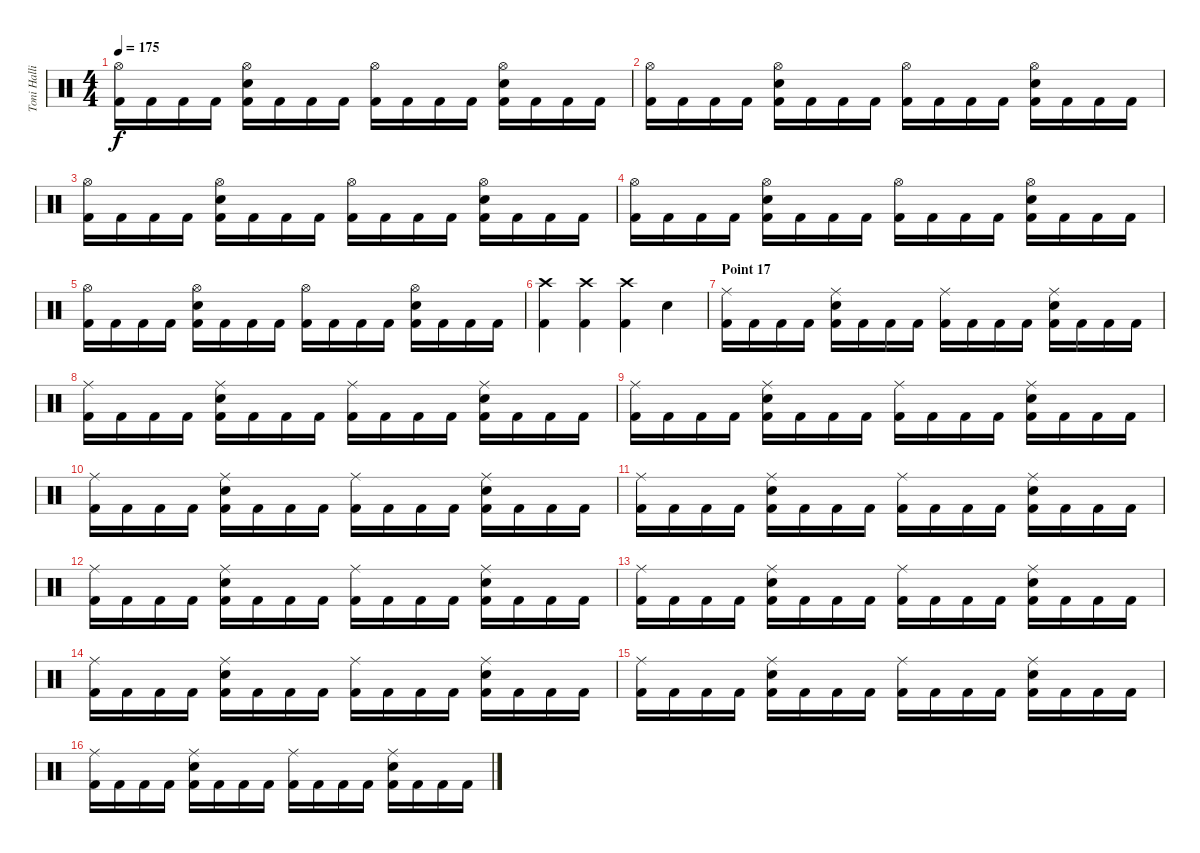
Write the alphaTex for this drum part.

\track ("Toni Hallio" "Toni Halli") {instrument percussion}
\staff {score}
\articulation defaults
\ts (4 4)
\tempo 175
\clef neutral
\ks c
("Hi-Hat (open)" "Kick (hit) 2").16{dy f} "Kick (hit) 2".16 "Kick (hit) 2".16 "Kick (hit) 2".16 ("Hi-Hat (open)" "Snare (hit) 2" "Kick (hit) 2").16 "Kick (hit) 2".16 "Kick (hit) 2".16 "Kick (hit) 2".16 ("Hi-Hat (open)" "Kick (hit) 2").16 "Kick (hit) 2".16 "Kick (hit) 2".16 "Kick (hit) 2".16 ("Hi-Hat (open)" "Snare (hit) 2" "Kick (hit) 2").16 "Kick (hit) 2".16 "Kick (hit) 2".16 "Kick (hit) 2".16 |
("Hi-Hat (open)" "Kick (hit) 2").16 "Kick (hit) 2".16 "Kick (hit) 2".16 "Kick (hit) 2".16 ("Hi-Hat (open)" "Snare (hit) 2" "Kick (hit) 2").16 "Kick (hit) 2".16 "Kick (hit) 2".16 "Kick (hit) 2".16 ("Hi-Hat (open)" "Kick (hit) 2").16 "Kick (hit) 2".16 "Kick (hit) 2".16 "Kick (hit) 2".16 ("Hi-Hat (open)" "Snare (hit) 2" "Kick (hit) 2").16 "Kick (hit) 2".16 "Kick (hit) 2".16 "Kick (hit) 2".16 |
("Hi-Hat (open)" "Kick (hit) 2").16 "Kick (hit) 2".16 "Kick (hit) 2".16 "Kick (hit) 2".16 ("Hi-Hat (open)" "Snare (hit) 2" "Kick (hit) 2").16 "Kick (hit) 2".16 "Kick (hit) 2".16 "Kick (hit) 2".16 ("Hi-Hat (open)" "Kick (hit) 2").16 "Kick (hit) 2".16 "Kick (hit) 2".16 "Kick (hit) 2".16 ("Hi-Hat (open)" "Snare (hit) 2" "Kick (hit) 2").16 "Kick (hit) 2".16 "Kick (hit) 2".16 "Kick (hit) 2".16 |
("Hi-Hat (open)" "Kick (hit) 2").16 "Kick (hit) 2".16 "Kick (hit) 2".16 "Kick (hit) 2".16 ("Hi-Hat (open)" "Snare (hit) 2" "Kick (hit) 2").16 "Kick (hit) 2".16 "Kick (hit) 2".16 "Kick (hit) 2".16 ("Hi-Hat (open)" "Kick (hit) 2").16 "Kick (hit) 2".16 "Kick (hit) 2".16 "Kick (hit) 2".16 ("Hi-Hat (open)" "Snare (hit) 2" "Kick (hit) 2").16 "Kick (hit) 2".16 "Kick (hit) 2".16 "Kick (hit) 2".16 |
("Hi-Hat (open)" "Kick (hit) 2").16 "Kick (hit) 2".16 "Kick (hit) 2".16 "Kick (hit) 2".16 ("Hi-Hat (open)" "Snare (hit) 2" "Kick (hit) 2").16 "Kick (hit) 2".16 "Kick (hit) 2".16 "Kick (hit) 2".16 ("Hi-Hat (open)" "Kick (hit) 2").16 "Kick (hit) 2".16 "Kick (hit) 2".16 "Kick (hit) 2".16 ("Hi-Hat (open)" "Snare (hit) 2" "Kick (hit) 2").16 "Kick (hit) 2".16 "Kick (hit) 2".16 "Kick (hit) 2".16 |
("Crash high (hit)" "Kick (hit) 2").4 ("Crash high (hit)" "Kick (hit) 2").4 ("Crash high (hit)" "Kick (hit) 2").4 "Snare (hit) 2".4 |
\section ("" "Point 17")
("Ride (middle)" "Kick (hit) 2").16 "Kick (hit) 2".16 "Kick (hit) 2".16 "Kick (hit) 2".16 ("Ride (middle)" "Snare (hit) 2" "Kick (hit) 2").16 "Kick (hit) 2".16 "Kick (hit) 2".16 "Kick (hit) 2".16 ("Ride (middle)" "Kick (hit) 2").16 "Kick (hit) 2".16 "Kick (hit) 2".16 "Kick (hit) 2".16 ("Ride (middle)" "Snare (hit) 2" "Kick (hit) 2").16 "Kick (hit) 2".16 "Kick (hit) 2".16 "Kick (hit) 2".16 |
("Ride (middle)" "Kick (hit) 2").16 "Kick (hit) 2".16 "Kick (hit) 2".16 "Kick (hit) 2".16 ("Ride (middle)" "Snare (hit) 2" "Kick (hit) 2").16 "Kick (hit) 2".16 "Kick (hit) 2".16 "Kick (hit) 2".16 ("Ride (middle)" "Kick (hit) 2").16 "Kick (hit) 2".16 "Kick (hit) 2".16 "Kick (hit) 2".16 ("Ride (middle)" "Snare (hit) 2" "Kick (hit) 2").16 "Kick (hit) 2".16 "Kick (hit) 2".16 "Kick (hit) 2".16 |
("Ride (middle)" "Kick (hit) 2").16 "Kick (hit) 2".16 "Kick (hit) 2".16 "Kick (hit) 2".16 ("Ride (middle)" "Snare (hit) 2" "Kick (hit) 2").16 "Kick (hit) 2".16 "Kick (hit) 2".16 "Kick (hit) 2".16 ("Ride (middle)" "Kick (hit) 2").16 "Kick (hit) 2".16 "Kick (hit) 2".16 "Kick (hit) 2".16 ("Ride (middle)" "Snare (hit) 2" "Kick (hit) 2").16 "Kick (hit) 2".16 "Kick (hit) 2".16 "Kick (hit) 2".16 |
("Ride (middle)" "Kick (hit) 2").16 "Kick (hit) 2".16 "Kick (hit) 2".16 "Kick (hit) 2".16 ("Ride (middle)" "Snare (hit) 2" "Kick (hit) 2").16 "Kick (hit) 2".16 "Kick (hit) 2".16 "Kick (hit) 2".16 ("Ride (middle)" "Kick (hit) 2").16 "Kick (hit) 2".16 "Kick (hit) 2".16 "Kick (hit) 2".16 ("Ride (middle)" "Snare (hit) 2" "Kick (hit) 2").16 "Kick (hit) 2".16 "Kick (hit) 2".16 "Kick (hit) 2".16 |
("Ride (middle)" "Kick (hit) 2").16 "Kick (hit) 2".16 "Kick (hit) 2".16 "Kick (hit) 2".16 ("Ride (middle)" "Snare (hit) 2" "Kick (hit) 2").16 "Kick (hit) 2".16 "Kick (hit) 2".16 "Kick (hit) 2".16 ("Ride (middle)" "Kick (hit) 2").16 "Kick (hit) 2".16 "Kick (hit) 2".16 "Kick (hit) 2".16 ("Ride (middle)" "Snare (hit) 2" "Kick (hit) 2").16 "Kick (hit) 2".16 "Kick (hit) 2".16 "Kick (hit) 2".16 |
("Ride (middle)" "Kick (hit) 2").16 "Kick (hit) 2".16 "Kick (hit) 2".16 "Kick (hit) 2".16 ("Ride (middle)" "Snare (hit) 2" "Kick (hit) 2").16 "Kick (hit) 2".16 "Kick (hit) 2".16 "Kick (hit) 2".16 ("Ride (middle)" "Kick (hit) 2").16 "Kick (hit) 2".16 "Kick (hit) 2".16 "Kick (hit) 2".16 ("Ride (middle)" "Snare (hit) 2" "Kick (hit) 2").16 "Kick (hit) 2".16 "Kick (hit) 2".16 "Kick (hit) 2".16 |
("Ride (middle)" "Kick (hit) 2").16 "Kick (hit) 2".16 "Kick (hit) 2".16 "Kick (hit) 2".16 ("Ride (middle)" "Snare (hit) 2" "Kick (hit) 2").16 "Kick (hit) 2".16 "Kick (hit) 2".16 "Kick (hit) 2".16 ("Ride (middle)" "Kick (hit) 2").16 "Kick (hit) 2".16 "Kick (hit) 2".16 "Kick (hit) 2".16 ("Ride (middle)" "Snare (hit) 2" "Kick (hit) 2").16 "Kick (hit) 2".16 "Kick (hit) 2".16 "Kick (hit) 2".16 |
("Ride (middle)" "Kick (hit) 2").16 "Kick (hit) 2".16 "Kick (hit) 2".16 "Kick (hit) 2".16 ("Ride (middle)" "Snare (hit) 2" "Kick (hit) 2").16 "Kick (hit) 2".16 "Kick (hit) 2".16 "Kick (hit) 2".16 ("Ride (middle)" "Kick (hit) 2").16 "Kick (hit) 2".16 "Kick (hit) 2".16 "Kick (hit) 2".16 ("Ride (middle)" "Snare (hit) 2" "Kick (hit) 2").16 "Kick (hit) 2".16 "Kick (hit) 2".16 "Kick (hit) 2".16 |
("Ride (middle)" "Kick (hit) 2").16 "Kick (hit) 2".16 "Kick (hit) 2".16 "Kick (hit) 2".16 ("Ride (middle)" "Snare (hit) 2" "Kick (hit) 2").16 "Kick (hit) 2".16 "Kick (hit) 2".16 "Kick (hit) 2".16 ("Ride (middle)" "Kick (hit) 2").16 "Kick (hit) 2".16 "Kick (hit) 2".16 "Kick (hit) 2".16 ("Ride (middle)" "Snare (hit) 2" "Kick (hit) 2").16 "Kick (hit) 2".16 "Kick (hit) 2".16 "Kick (hit) 2".16 |
("Ride (middle)" "Kick (hit) 2").16 "Kick (hit) 2".16 "Kick (hit) 2".16 "Kick (hit) 2".16 ("Ride (middle)" "Snare (hit) 2" "Kick (hit) 2").16 "Kick (hit) 2".16 "Kick (hit) 2".16 "Kick (hit) 2".16 ("Ride (middle)" "Kick (hit) 2").16 "Kick (hit) 2".16 "Kick (hit) 2".16 "Kick (hit) 2".16 ("Ride (middle)" "Snare (hit) 2" "Kick (hit) 2").16 "Kick (hit) 2".16 "Kick (hit) 2".16 "Kick (hit) 2".16
